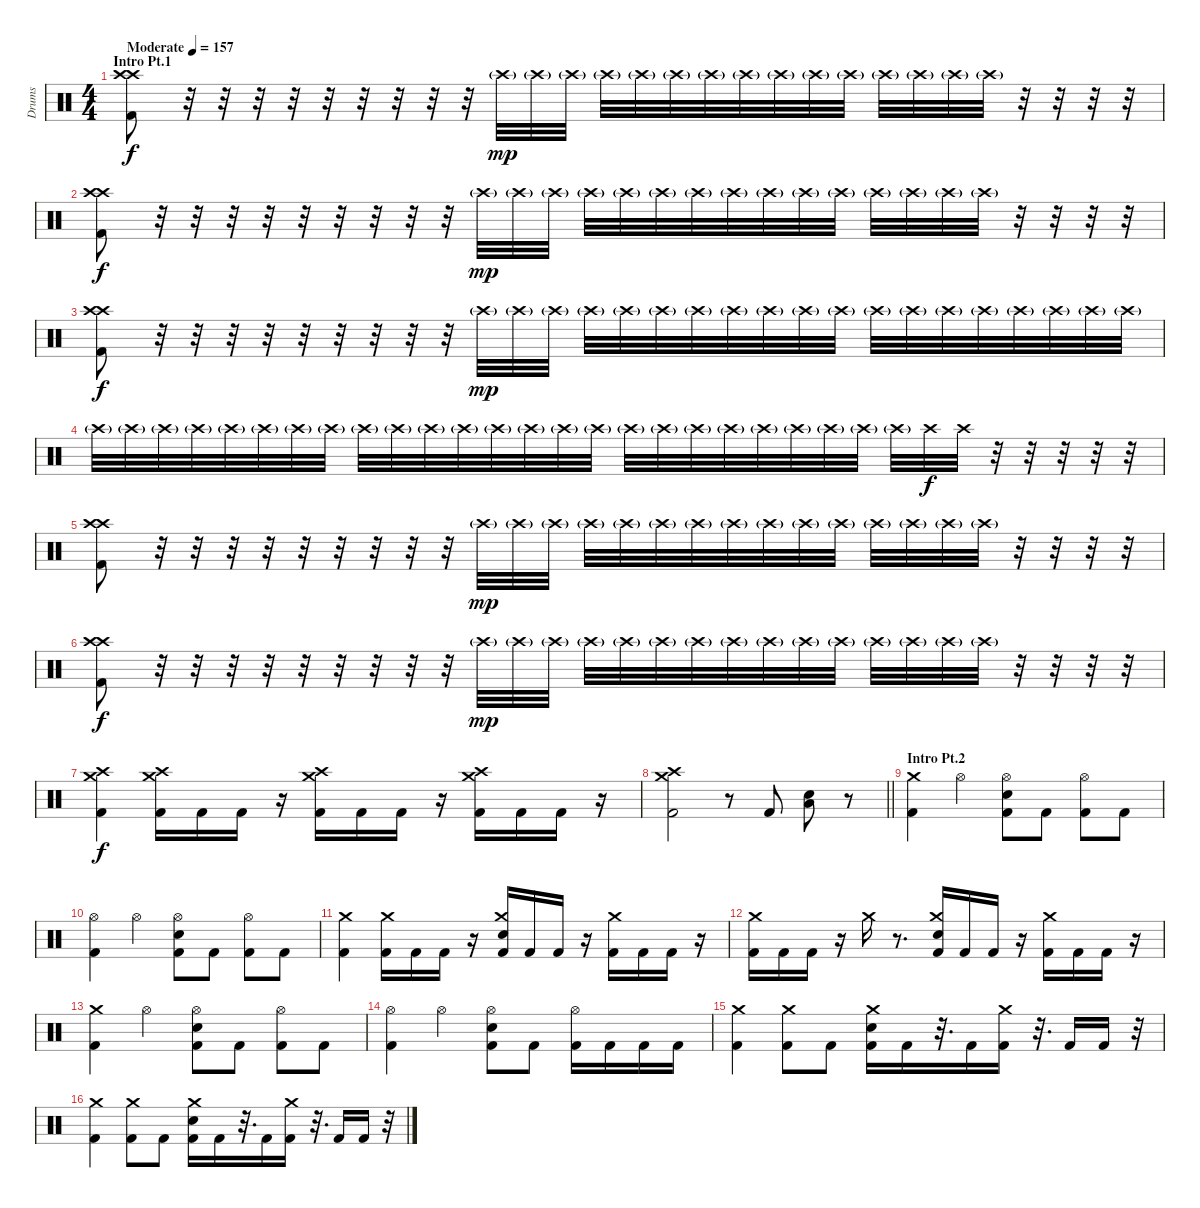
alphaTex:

\track ("Drums" "Drums") {instrument percussion}
\staff {score}
\articulation defaults
\ts (4 4)
\section ("" "Intro Pt.1")
\tempo (157 "Moderate")
\clef neutral
\ks c
("Crash high (hit)" "Crash high (hit)" "Kick (hit) 2").8{dy f} r.32 r.32 r.32 r.32 r.32 r.32 r.32 r.32 r.32 "Crash high (hit)"{g}.32{dy mp} "Crash high (hit)"{g}.32 "Crash high (hit)"{g}.32 "Crash high (hit)"{g}.32 "Crash high (hit)"{g}.32 "Crash high (hit)"{g}.32 "Crash high (hit)"{g}.32 "Crash high (hit)"{g}.32 "Crash high (hit)"{g}.32 "Crash high (hit)"{g}.32 "Crash high (hit)"{g}.32 "Crash high (hit)"{g}.32 "Crash high (hit)"{g}.32 "Crash high (hit)"{g}.32 "Crash high (hit)"{g}.32 r.32 r.32 r.32 r.32 |
("Crash high (hit)" "Crash high (hit)" "Kick (hit) 2").8{dy f} r.32 r.32 r.32 r.32 r.32 r.32 r.32 r.32 r.32 "Crash high (hit)"{g}.32{dy mp} "Crash high (hit)"{g}.32 "Crash high (hit)"{g}.32 "Crash high (hit)"{g}.32 "Crash high (hit)"{g}.32 "Crash high (hit)"{g}.32 "Crash high (hit)"{g}.32 "Crash high (hit)"{g}.32 "Crash high (hit)"{g}.32 "Crash high (hit)"{g}.32 "Crash high (hit)"{g}.32 "Crash high (hit)"{g}.32 "Crash high (hit)"{g}.32 "Crash high (hit)"{g}.32 "Crash high (hit)"{g}.32 r.32 r.32 r.32 r.32 |
("Crash high (hit)" "Crash high (hit)" "Kick (hit) 2").8{dy f} r.32 r.32 r.32 r.32 r.32 r.32 r.32 r.32 r.32 "Crash high (hit)"{g}.32{dy mp} "Crash high (hit)"{g}.32 "Crash high (hit)"{g}.32 "Crash high (hit)"{g}.32 "Crash high (hit)"{g}.32 "Crash high (hit)"{g}.32 "Crash high (hit)"{g}.32 "Crash high (hit)"{g}.32 "Crash high (hit)"{g}.32 "Crash high (hit)"{g}.32 "Crash high (hit)"{g}.32 "Crash high (hit)"{g}.32 "Crash high (hit)"{g}.32 "Crash high (hit)"{g}.32 "Crash high (hit)"{g}.32 "Crash high (hit)"{g}.32 "Crash high (hit)"{g}.32 "Crash high (hit)"{g}.32 "Crash high (hit)"{g}.32 |
"Crash high (hit)"{g}.32 "Crash high (hit)"{g}.32 "Crash high (hit)"{g}.32 "Crash high (hit)"{g}.32 "Crash high (hit)"{g}.32 "Crash high (hit)"{g}.32 "Crash high (hit)"{g}.32 "Crash high (hit)"{g}.32 "Crash high (hit)"{g}.32 "Crash high (hit)"{g}.32 "Crash high (hit)"{g}.32 "Crash high (hit)"{g}.32 "Crash high (hit)"{g}.32 "Crash high (hit)"{g}.32 "Crash high (hit)"{g}.32 "Crash high (hit)"{g}.32 "Crash high (hit)"{g}.32 "Crash high (hit)"{g}.32 "Crash high (hit)"{g}.32 "Crash high (hit)"{g}.32 "Crash high (hit)"{g}.32 "Crash high (hit)"{g}.32 "Crash high (hit)"{g}.32 "Crash high (hit)"{g}.32 "Crash high (hit)"{g}.32 "Crash high (hit)".32{dy f} "Crash high (hit)".32 r.32 r.32 r.32 r.32 r.32 |
("Crash high (hit)" "Crash high (hit)" "Kick (hit) 2").8 r.32 r.32 r.32 r.32 r.32 r.32 r.32 r.32 r.32 "Crash high (hit)"{g}.32{dy mp} "Crash high (hit)"{g}.32 "Crash high (hit)"{g}.32 "Crash high (hit)"{g}.32 "Crash high (hit)"{g}.32 "Crash high (hit)"{g}.32 "Crash high (hit)"{g}.32 "Crash high (hit)"{g}.32 "Crash high (hit)"{g}.32 "Crash high (hit)"{g}.32 "Crash high (hit)"{g}.32 "Crash high (hit)"{g}.32 "Crash high (hit)"{g}.32 "Crash high (hit)"{g}.32 "Crash high (hit)"{g}.32 r.32 r.32 r.32 r.32 |
("Crash high (hit)" "Crash high (hit)" "Kick (hit) 2").8{dy f} r.32 r.32 r.32 r.32 r.32 r.32 r.32 r.32 r.32 "Crash high (hit)"{g}.32{dy mp} "Crash high (hit)"{g}.32 "Crash high (hit)"{g}.32 "Crash high (hit)"{g}.32 "Crash high (hit)"{g}.32 "Crash high (hit)"{g}.32 "Crash high (hit)"{g}.32 "Crash high (hit)"{g}.32 "Crash high (hit)"{g}.32 "Crash high (hit)"{g}.32 "Crash high (hit)"{g}.32 "Crash high (hit)"{g}.32 "Crash high (hit)"{g}.32 "Crash high (hit)"{g}.32 "Crash high (hit)"{g}.32 r.32 r.32 r.32 r.32 |
("Crash high (hit)" "Crash medium (hit)" "Kick (hit) 2").4{dy f} ("Crash high (hit)" "Crash medium (hit)" "Kick (hit) 2").16 "Kick (hit) 2".16 "Kick (hit) 2".16 r.16 ("Crash high (hit)" "Crash medium (hit)" "Kick (hit) 2").16 "Kick (hit) 2".16 "Kick (hit) 2".16 r.16 ("Crash high (hit)" "Crash medium (hit)" "Kick (hit) 2").16 "Kick (hit) 2".16 "Kick (hit) 2".16 r.16 |
\barLineRight lightlight
("Crash high (hit)" "Crash medium (hit)" "Kick (hit) 2").2 r.8 "Kick (hit) 2".8 ("Electric Snare (hit)" "Low Tom (hit)").8 r.8 |
\section ("" "Intro Pt.2")
("Crash medium (hit)" "Kick (hit) 2").4 "Hi-Hat (open)".4 ("Hi-Hat (open)" "Electric Snare (hit)" "Kick (hit) 2").8 "Kick (hit) 2".8 ("Hi-Hat (open)" "Kick (hit) 2").8 "Kick (hit) 2".8 |
("Hi-Hat (open)" "Kick (hit) 2").4 "Hi-Hat (open)".4 ("Hi-Hat (open)" "Electric Snare (hit)" "Kick (hit) 2").8 "Kick (hit) 2".8 ("Hi-Hat (open)" "Kick (hit) 2").8 "Kick (hit) 2".8 |
("Crash medium (hit)" "Kick (hit) 2").4 ("Crash medium (hit)" "Kick (hit) 2").16 "Kick (hit) 2".16 "Kick (hit) 2".16 r.16 ("Crash medium (hit)" "Electric Snare (hit)" "Kick (hit) 2").16 "Kick (hit) 2".16 "Kick (hit) 2".16 r.16 ("Crash medium (hit)" "Kick (hit) 2").16 "Kick (hit) 2".16 "Kick (hit) 2".16 r.16 |
("Crash medium (hit)" "Kick (hit) 2").16 "Kick (hit) 2".16 "Kick (hit) 2".16 r.16 "Crash medium (hit)".16 r.8{d} ("Crash medium (hit)" "Electric Snare (hit)" "Kick (hit) 2").16 "Kick (hit) 2".16 "Kick (hit) 2".16 r.16 ("Crash medium (hit)" "Kick (hit) 2").16 "Kick (hit) 2".16 "Kick (hit) 2".16 r.16 |
("Crash medium (hit)" "Kick (hit) 2").4 "Hi-Hat (open)".4 ("Hi-Hat (open)" "Electric Snare (hit)" "Kick (hit) 2").8 "Kick (hit) 2".8 ("Hi-Hat (open)" "Kick (hit) 2").8 "Kick (hit) 2".8 |
("Hi-Hat (open)" "Kick (hit) 2").4 "Hi-Hat (open)".4 ("Hi-Hat (open)" "Electric Snare (hit)" "Kick (hit) 2").8 "Kick (hit) 2".8 ("Hi-Hat (open)" "Kick (hit) 2").16 "Kick (hit) 2".16 "Kick (hit) 2".16 "Kick (hit) 2".16 |
("Crash medium (hit)" "Kick (hit) 2").4 ("Crash medium (hit)" "Kick (hit) 2").8 "Kick (hit) 2".8 ("Crash medium (hit)" "Electric Snare (hit)" "Kick (hit) 2").16 "Kick (hit) 2".16 r.32{d} "Kick (hit) 2".16 ("Crash medium (hit)" "Kick (hit) 2").16 r.32{d} "Kick (hit) 2".16 "Kick (hit) 2".16 r.32 |
("Crash medium (hit)" "Kick (hit) 2").4 ("Crash medium (hit)" "Kick (hit) 2").8 "Kick (hit) 2".8 ("Crash medium (hit)" "Electric Snare (hit)" "Kick (hit) 2").16 "Kick (hit) 2".16 r.32{d} "Kick (hit) 2".16 ("Crash medium (hit)" "Kick (hit) 2").16 r.32{d} "Kick (hit) 2".16 "Kick (hit) 2".16 r.32
